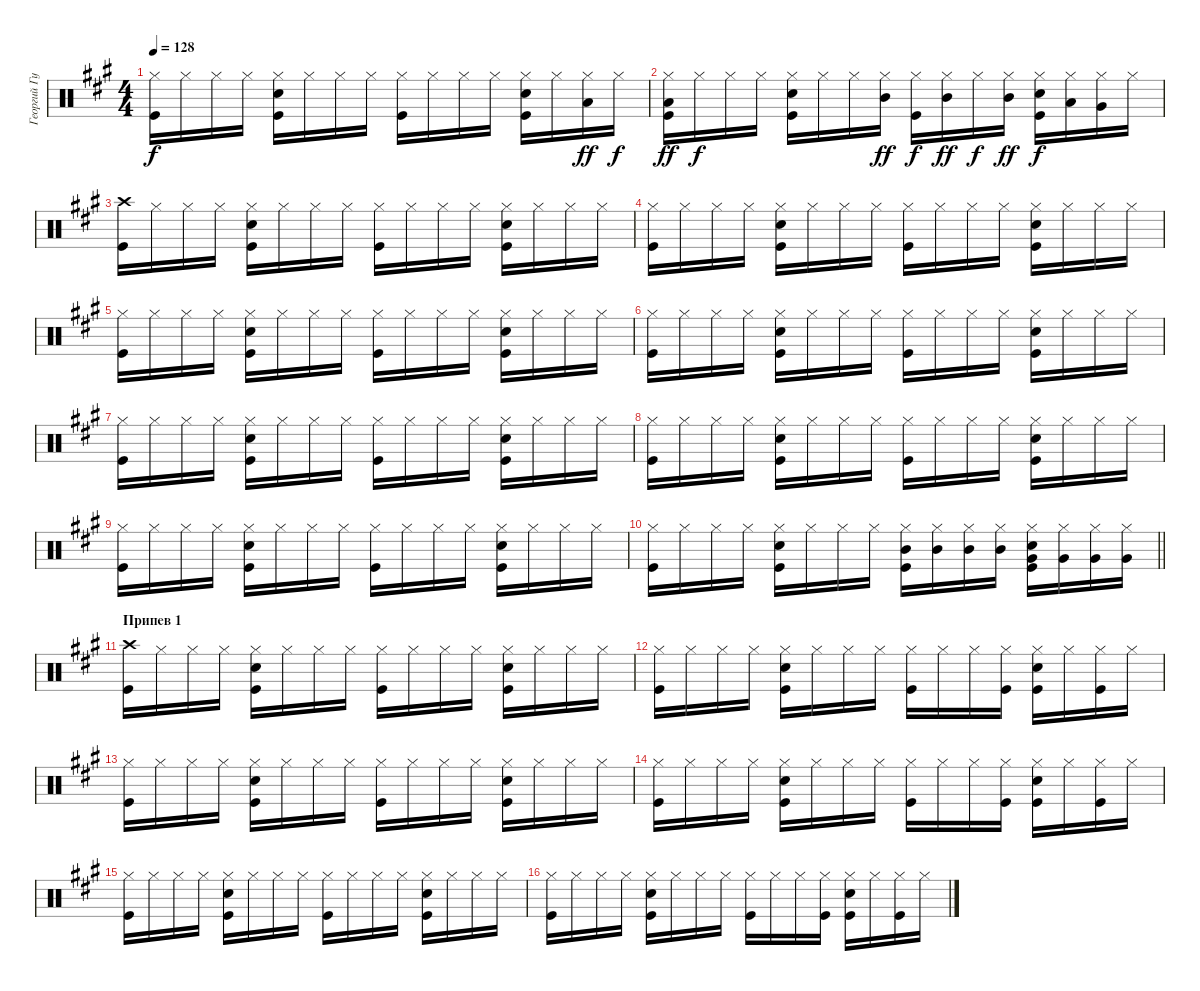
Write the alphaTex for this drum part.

\track ("Георгий Гурьянов" "Георгий Гу") {instrument percussion}
\staff {score}
\articulation defaults
\ts (4 4)
\tempo 128
\clef neutral
\ks f#minor
("Hi-Hat (closed)" "Kick (hit)").16{dy f} "Hi-Hat (closed)".16 "Hi-Hat (closed)".16 "Hi-Hat (closed)".16 ("Hi-Hat (closed)" "Snare (hit) 2" "Kick (hit)").16 "Hi-Hat (closed)".16 "Hi-Hat (closed)".16 "Hi-Hat (closed)".16 ("Hi-Hat (closed)" "Kick (hit)").16 "Hi-Hat (closed)".16 "Hi-Hat (closed)".16 "Hi-Hat (closed)".16 ("Hi-Hat (closed)" "Snare (hit) 2" "Kick (hit)").16 "Hi-Hat (closed)".16 ("Hi-Hat (closed)" "Low Floor Tom (hit)").16{dy ff} "Hi-Hat (closed)".16{dy f} |
("Hi-Hat (closed)" "Kick (hit)" "Low Floor Tom (hit)").16{dy ff} "Hi-Hat (closed)".16{dy f} "Hi-Hat (closed)".16 "Hi-Hat (closed)".16 ("Hi-Hat (closed)" "Snare (hit) 2" "Kick (hit)").16 "Hi-Hat (closed)".16 "Hi-Hat (closed)".16 ("Mid Tom (hit)" "Hi-Hat (closed)").16{dy ff} ("Hi-Hat (closed)" "Kick (hit)").16{dy f} ("Mid Tom (hit)" "Hi-Hat (closed)").16{dy ff} "Hi-Hat (closed)".16{dy f} ("Mid Tom (hit)" "Hi-Hat (closed)").16{dy ff} ("Hi-Hat (closed)" "Snare (hit) 2" "Kick (hit)").16{dy f} ("Hi-Hat (closed)" "Low Tom (hit)").16 ("Very Low Tom (hit)" "Hi-Hat (closed)").16 "Hi-Hat (closed)".16 |
("Kick (hit)" "Crash high (hit)").16 "Hi-Hat (closed)".16 "Hi-Hat (closed)".16 "Hi-Hat (closed)".16 ("Hi-Hat (closed)" "Snare (hit) 2" "Kick (hit)").16 "Hi-Hat (closed)".16 "Hi-Hat (closed)".16 "Hi-Hat (closed)".16 ("Hi-Hat (closed)" "Kick (hit)").16 "Hi-Hat (closed)".16 "Hi-Hat (closed)".16 "Hi-Hat (closed)".16 ("Hi-Hat (closed)" "Snare (hit) 2" "Kick (hit)").16 "Hi-Hat (closed)".16 "Hi-Hat (closed)".16 "Hi-Hat (closed)".16 |
("Hi-Hat (closed)" "Kick (hit)").16 "Hi-Hat (closed)".16 "Hi-Hat (closed)".16 "Hi-Hat (closed)".16 ("Hi-Hat (closed)" "Snare (hit) 2" "Kick (hit)").16 "Hi-Hat (closed)".16 "Hi-Hat (closed)".16 "Hi-Hat (closed)".16 ("Hi-Hat (closed)" "Kick (hit)").16 "Hi-Hat (closed)".16 "Hi-Hat (closed)".16 "Hi-Hat (closed)".16 ("Hi-Hat (closed)" "Snare (hit) 2" "Kick (hit)").16 "Hi-Hat (closed)".16 "Hi-Hat (closed)".16 "Hi-Hat (closed)".16 |
("Hi-Hat (closed)" "Kick (hit)").16 "Hi-Hat (closed)".16 "Hi-Hat (closed)".16 "Hi-Hat (closed)".16 ("Hi-Hat (closed)" "Snare (hit) 2" "Kick (hit)").16 "Hi-Hat (closed)".16 "Hi-Hat (closed)".16 "Hi-Hat (closed)".16 ("Hi-Hat (closed)" "Kick (hit)").16 "Hi-Hat (closed)".16 "Hi-Hat (closed)".16 "Hi-Hat (closed)".16 ("Hi-Hat (closed)" "Snare (hit) 2" "Kick (hit)").16 "Hi-Hat (closed)".16 "Hi-Hat (closed)".16 "Hi-Hat (closed)".16 |
("Hi-Hat (closed)" "Kick (hit)").16 "Hi-Hat (closed)".16 "Hi-Hat (closed)".16 "Hi-Hat (closed)".16 ("Hi-Hat (closed)" "Snare (hit) 2" "Kick (hit)").16 "Hi-Hat (closed)".16 "Hi-Hat (closed)".16 "Hi-Hat (closed)".16 ("Hi-Hat (closed)" "Kick (hit)").16 "Hi-Hat (closed)".16 "Hi-Hat (closed)".16 "Hi-Hat (closed)".16 ("Hi-Hat (closed)" "Snare (hit) 2" "Kick (hit)").16 "Hi-Hat (closed)".16 "Hi-Hat (closed)".16 "Hi-Hat (closed)".16 |
("Hi-Hat (closed)" "Kick (hit)").16 "Hi-Hat (closed)".16 "Hi-Hat (closed)".16 "Hi-Hat (closed)".16 ("Hi-Hat (closed)" "Snare (hit) 2" "Kick (hit)").16 "Hi-Hat (closed)".16 "Hi-Hat (closed)".16 "Hi-Hat (closed)".16 ("Hi-Hat (closed)" "Kick (hit)").16 "Hi-Hat (closed)".16 "Hi-Hat (closed)".16 "Hi-Hat (closed)".16 ("Hi-Hat (closed)" "Snare (hit) 2" "Kick (hit)").16 "Hi-Hat (closed)".16 "Hi-Hat (closed)".16 "Hi-Hat (closed)".16 |
("Hi-Hat (closed)" "Kick (hit)").16 "Hi-Hat (closed)".16 "Hi-Hat (closed)".16 "Hi-Hat (closed)".16 ("Hi-Hat (closed)" "Snare (hit) 2" "Kick (hit)").16 "Hi-Hat (closed)".16 "Hi-Hat (closed)".16 "Hi-Hat (closed)".16 ("Hi-Hat (closed)" "Kick (hit)").16 "Hi-Hat (closed)".16 "Hi-Hat (closed)".16 "Hi-Hat (closed)".16 ("Hi-Hat (closed)" "Snare (hit) 2" "Kick (hit)").16 "Hi-Hat (closed)".16 "Hi-Hat (closed)".16 "Hi-Hat (closed)".16 |
("Hi-Hat (closed)" "Kick (hit)").16 "Hi-Hat (closed)".16 "Hi-Hat (closed)".16 "Hi-Hat (closed)".16 ("Hi-Hat (closed)" "Snare (hit) 2" "Kick (hit)").16 "Hi-Hat (closed)".16 "Hi-Hat (closed)".16 "Hi-Hat (closed)".16 ("Hi-Hat (closed)" "Kick (hit)").16 "Hi-Hat (closed)".16 "Hi-Hat (closed)".16 "Hi-Hat (closed)".16 ("Hi-Hat (closed)" "Snare (hit) 2" "Kick (hit)").16 "Hi-Hat (closed)".16 "Hi-Hat (closed)".16 "Hi-Hat (closed)".16 |
\barLineRight lightlight
("Hi-Hat (closed)" "Kick (hit)").16 "Hi-Hat (closed)".16 "Hi-Hat (closed)".16 "Hi-Hat (closed)".16 ("Hi-Hat (closed)" "Snare (hit) 2" "Kick (hit)").16 "Hi-Hat (closed)".16 "Hi-Hat (closed)".16 "Hi-Hat (closed)".16 ("Mid Tom (hit)" "Hi-Hat (closed)" "Kick (hit)").16 ("Mid Tom (hit)" "Hi-Hat (closed)").16 ("Mid Tom (hit)" "Hi-Hat (closed)").16 ("Mid Tom (hit)" "Hi-Hat (closed)").16 ("Very Low Tom (hit)" "Hi-Hat (closed)" "Snare (hit) 2" "Kick (hit)").16 ("Very Low Tom (hit)" "Hi-Hat (closed)").16 ("Very Low Tom (hit)" "Hi-Hat (closed)").16 ("Very Low Tom (hit)" "Hi-Hat (closed)").16 |
\section ("" "Припев 1")
("Kick (hit)" "Crash high (hit)").16 "Hi-Hat (closed)".16 "Hi-Hat (closed)".16 "Hi-Hat (closed)".16 ("Hi-Hat (closed)" "Snare (hit) 2" "Kick (hit)").16 "Hi-Hat (closed)".16 "Hi-Hat (closed)".16 "Hi-Hat (closed)".16 ("Hi-Hat (closed)" "Kick (hit)").16 "Hi-Hat (closed)".16 "Hi-Hat (closed)".16 "Hi-Hat (closed)".16 ("Hi-Hat (closed)" "Snare (hit) 2" "Kick (hit)").16 "Hi-Hat (closed)".16 "Hi-Hat (closed)".16 "Hi-Hat (closed)".16 |
("Hi-Hat (closed)" "Kick (hit)").16 "Hi-Hat (closed)".16 "Hi-Hat (closed)".16 "Hi-Hat (closed)".16 ("Hi-Hat (closed)" "Snare (hit) 2" "Kick (hit)").16 "Hi-Hat (closed)".16 "Hi-Hat (closed)".16 "Hi-Hat (closed)".16 ("Hi-Hat (closed)" "Kick (hit)").16 "Hi-Hat (closed)".16 "Hi-Hat (closed)".16 ("Hi-Hat (closed)" "Kick (hit)").16 ("Hi-Hat (closed)" "Snare (hit) 2" "Kick (hit)").16 "Hi-Hat (closed)".16 ("Hi-Hat (closed)" "Kick (hit)").16 "Hi-Hat (closed)".16 |
("Hi-Hat (closed)" "Kick (hit)").16 "Hi-Hat (closed)".16 "Hi-Hat (closed)".16 "Hi-Hat (closed)".16 ("Hi-Hat (closed)" "Snare (hit) 2" "Kick (hit)").16 "Hi-Hat (closed)".16 "Hi-Hat (closed)".16 "Hi-Hat (closed)".16 ("Hi-Hat (closed)" "Kick (hit)").16 "Hi-Hat (closed)".16 "Hi-Hat (closed)".16 "Hi-Hat (closed)".16 ("Hi-Hat (closed)" "Snare (hit) 2" "Kick (hit)").16 "Hi-Hat (closed)".16 "Hi-Hat (closed)".16 "Hi-Hat (closed)".16 |
("Hi-Hat (closed)" "Kick (hit)").16 "Hi-Hat (closed)".16 "Hi-Hat (closed)".16 "Hi-Hat (closed)".16 ("Hi-Hat (closed)" "Snare (hit) 2" "Kick (hit)").16 "Hi-Hat (closed)".16 "Hi-Hat (closed)".16 "Hi-Hat (closed)".16 ("Hi-Hat (closed)" "Kick (hit)").16 "Hi-Hat (closed)".16 "Hi-Hat (closed)".16 ("Hi-Hat (closed)" "Kick (hit)").16 ("Hi-Hat (closed)" "Snare (hit) 2" "Kick (hit)").16 "Hi-Hat (closed)".16 ("Hi-Hat (closed)" "Kick (hit)").16 "Hi-Hat (closed)".16 |
("Hi-Hat (closed)" "Kick (hit)").16 "Hi-Hat (closed)".16 "Hi-Hat (closed)".16 "Hi-Hat (closed)".16 ("Hi-Hat (closed)" "Snare (hit) 2" "Kick (hit)").16 "Hi-Hat (closed)".16 "Hi-Hat (closed)".16 "Hi-Hat (closed)".16 ("Hi-Hat (closed)" "Kick (hit)").16 "Hi-Hat (closed)".16 "Hi-Hat (closed)".16 "Hi-Hat (closed)".16 ("Hi-Hat (closed)" "Snare (hit) 2" "Kick (hit)").16 "Hi-Hat (closed)".16 "Hi-Hat (closed)".16 "Hi-Hat (closed)".16 |
("Hi-Hat (closed)" "Kick (hit)").16 "Hi-Hat (closed)".16 "Hi-Hat (closed)".16 "Hi-Hat (closed)".16 ("Hi-Hat (closed)" "Snare (hit) 2" "Kick (hit)").16 "Hi-Hat (closed)".16 "Hi-Hat (closed)".16 "Hi-Hat (closed)".16 ("Hi-Hat (closed)" "Kick (hit)").16 "Hi-Hat (closed)".16 "Hi-Hat (closed)".16 ("Hi-Hat (closed)" "Kick (hit)").16 ("Hi-Hat (closed)" "Snare (hit) 2" "Kick (hit)").16 "Hi-Hat (closed)".16 ("Hi-Hat (closed)" "Kick (hit)").16 "Hi-Hat (closed)".16
